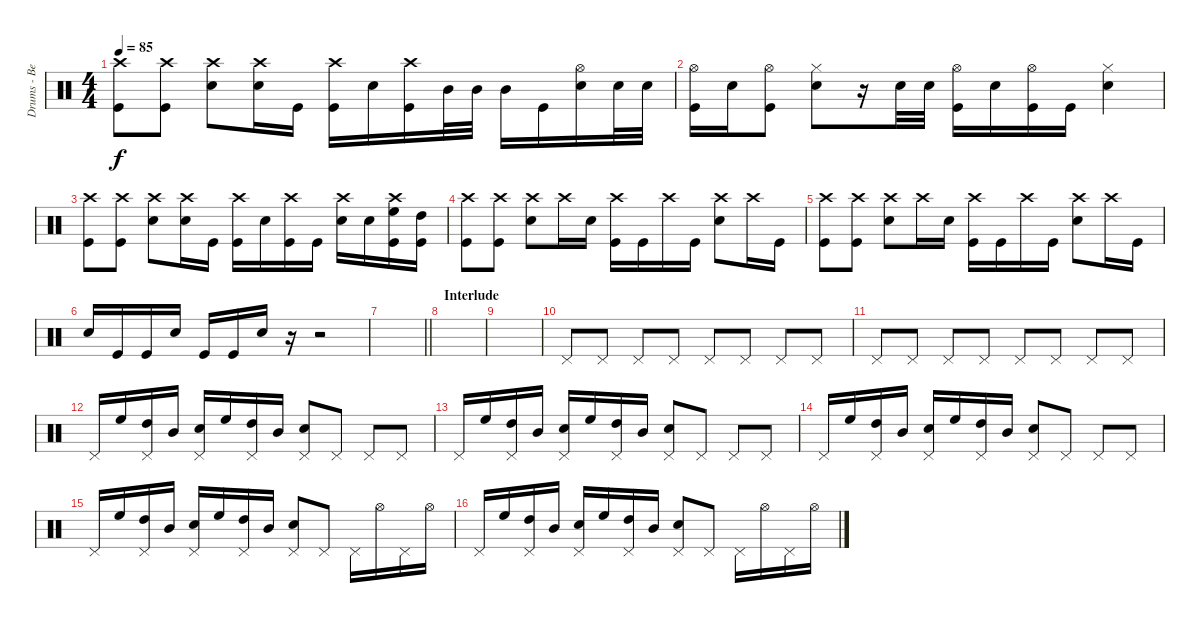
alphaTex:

\track ("Drums - Ben Johnston" "Drums - Be") {instrument percussion}
\staff {score}
\articulation defaults
\ts (4 4)
\tempo 85
\clef neutral
\ks c
("Crash high (hit)" "Kick (hit)").8{dy f} ("Crash high (hit)" "Kick (hit)").8 ("Crash high (hit)" "Snare (hit) 2").8 ("Crash high (hit)" "Snare (hit) 2").16 "Kick (hit)".16 ("Crash high (hit)" "Kick (hit)").16 "Snare (hit) 2".16 ("Crash high (hit)" "Kick (hit)").16 "Mid Tom (hit)".32 "Mid Tom (hit)".32 "Mid Tom (hit)".16 "Kick (hit)".16 ("Hi-Hat (open)" "Snare (hit) 2").16 "Snare (hit) 2".32 "Snare (hit) 2".32 |
("Hi-Hat (open)" "Kick (hit)").16 "Snare (hit) 2".16 ("Hi-Hat (open)" "Kick (hit)").8 ("Hi-Hat (closed)" "Snare (hit) 2").8 r.16 "Snare (hit) 2".32 "Snare (hit) 2".32 ("Hi-Hat (open)" "Kick (hit)").16 "Snare (hit) 2".16 ("Hi-Hat (open)" "Kick (hit)").16 "Kick (hit)".16 ("Hi-Hat (closed)" "Snare (hit) 2").4 |
("Crash high (hit)" "Kick (hit)").8 ("Crash high (hit)" "Kick (hit)").8 ("Crash high (hit)" "Snare (hit) 2").8 ("Crash high (hit)" "Snare (hit) 2").16 "Kick (hit)".16 ("Crash high (hit)" "Kick (hit)").16 "Snare (hit) 2".16 ("Crash high (hit)" "Kick (hit)").16 "Kick (hit)".16 ("Crash high (hit)" "Snare (hit) 2").16 "Snare (hit) 2".16 ("Crash high (hit)" "High Floor Tom (hit)" "Kick (hit)").16 ("High Tom (hit)" "Kick (hit)").16 |
("Crash high (hit)" "Kick (hit)").8 ("Crash high (hit)" "Kick (hit)").8 ("Crash high (hit)" "Snare (hit) 2").8 "Crash high (hit)".16 "Snare (hit) 2".16 ("Crash high (hit)" "Kick (hit)").16 "Kick (hit)".16 "Crash high (hit)".16 "Kick (hit)".16 ("Crash high (hit)" "Snare (hit) 2").8 "Crash high (hit)".16 "Kick (hit)".16 |
("Crash high (hit)" "Kick (hit)").8 ("Crash high (hit)" "Kick (hit)").8 ("Crash high (hit)" "Snare (hit) 2").8 "Crash high (hit)".16 "Snare (hit) 2".16 ("Crash high (hit)" "Kick (hit)").16 "Kick (hit)".16 "Crash high (hit)".16 "Kick (hit)".16 ("Crash high (hit)" "Snare (hit) 2").8 "Crash high (hit)".16 "Kick (hit)".16 |
"Snare (hit) 2".16 "Kick (hit)".16 "Kick (hit)".16 "Snare (hit) 2".16 "Kick (hit)".16 "Kick (hit)".16 "Snare (hit) 2".16 r.16 r.2 |
\barLineRight lightlight
|
\section ("" "Interlude")
|
|
"Pedal Hi-Hat (hit)".8 "Pedal Hi-Hat (hit)".8 "Pedal Hi-Hat (hit)".8 "Pedal Hi-Hat (hit)".8 "Pedal Hi-Hat (hit)".8 "Pedal Hi-Hat (hit)".8 "Pedal Hi-Hat (hit)".8 "Pedal Hi-Hat (hit)".8 |
"Pedal Hi-Hat (hit)".8 "Pedal Hi-Hat (hit)".8 "Pedal Hi-Hat (hit)".8 "Pedal Hi-Hat (hit)".8 "Pedal Hi-Hat (hit)".8 "Pedal Hi-Hat (hit)".8 "Pedal Hi-Hat (hit)".8 "Pedal Hi-Hat (hit)".8 |
"Pedal Hi-Hat (hit)".16 "High Floor Tom (hit)".16 ("High Tom (hit)" "Pedal Hi-Hat (hit)").16 "Mid Tom (hit)".16 ("Pedal Hi-Hat (hit)" "Snare (hit) 2").16 "High Floor Tom (hit)".16 ("High Tom (hit)" "Pedal Hi-Hat (hit)").16 "Mid Tom (hit)".16 ("Pedal Hi-Hat (hit)" "Snare (hit) 2").8 "Pedal Hi-Hat (hit)".8 "Pedal Hi-Hat (hit)".8 "Pedal Hi-Hat (hit)".8 |
"Pedal Hi-Hat (hit)".16 "High Floor Tom (hit)".16 ("High Tom (hit)" "Pedal Hi-Hat (hit)").16 "Mid Tom (hit)".16 ("Pedal Hi-Hat (hit)" "Snare (hit) 2").16 "High Floor Tom (hit)".16 ("High Tom (hit)" "Pedal Hi-Hat (hit)").16 "Mid Tom (hit)".16 ("Pedal Hi-Hat (hit)" "Snare (hit) 2").8 "Pedal Hi-Hat (hit)".8 "Pedal Hi-Hat (hit)".8 "Pedal Hi-Hat (hit)".8 |
"Pedal Hi-Hat (hit)".16 "High Floor Tom (hit)".16 ("High Tom (hit)" "Pedal Hi-Hat (hit)").16 "Mid Tom (hit)".16 ("Pedal Hi-Hat (hit)" "Snare (hit) 2").16 "High Floor Tom (hit)".16 ("High Tom (hit)" "Pedal Hi-Hat (hit)").16 "Mid Tom (hit)".16 ("Pedal Hi-Hat (hit)" "Snare (hit) 2").8 "Pedal Hi-Hat (hit)".8 "Pedal Hi-Hat (hit)".8 "Pedal Hi-Hat (hit)".8 |
"Pedal Hi-Hat (hit)".16 "High Floor Tom (hit)".16 ("High Tom (hit)" "Pedal Hi-Hat (hit)").16 "Mid Tom (hit)".16 ("Pedal Hi-Hat (hit)" "Snare (hit) 2").16 "High Floor Tom (hit)".16 ("High Tom (hit)" "Pedal Hi-Hat (hit)").16 "Mid Tom (hit)".16 ("Pedal Hi-Hat (hit)" "Snare (hit) 2").8 "Pedal Hi-Hat (hit)".8 "Pedal Hi-Hat (hit)".16 "Hi-Hat (open)".16 "Pedal Hi-Hat (hit)".16 "Hi-Hat (open)".16 |
"Pedal Hi-Hat (hit)".16 "High Floor Tom (hit)".16 ("High Tom (hit)" "Pedal Hi-Hat (hit)").16 "Mid Tom (hit)".16 ("Pedal Hi-Hat (hit)" "Snare (hit) 2").16 "High Floor Tom (hit)".16 ("High Tom (hit)" "Pedal Hi-Hat (hit)").16 "Mid Tom (hit)".16 ("Pedal Hi-Hat (hit)" "Snare (hit) 2").8 "Pedal Hi-Hat (hit)".8 "Pedal Hi-Hat (hit)".16 "Hi-Hat (open)".16 "Pedal Hi-Hat (hit)".16 "Hi-Hat (open)".16
